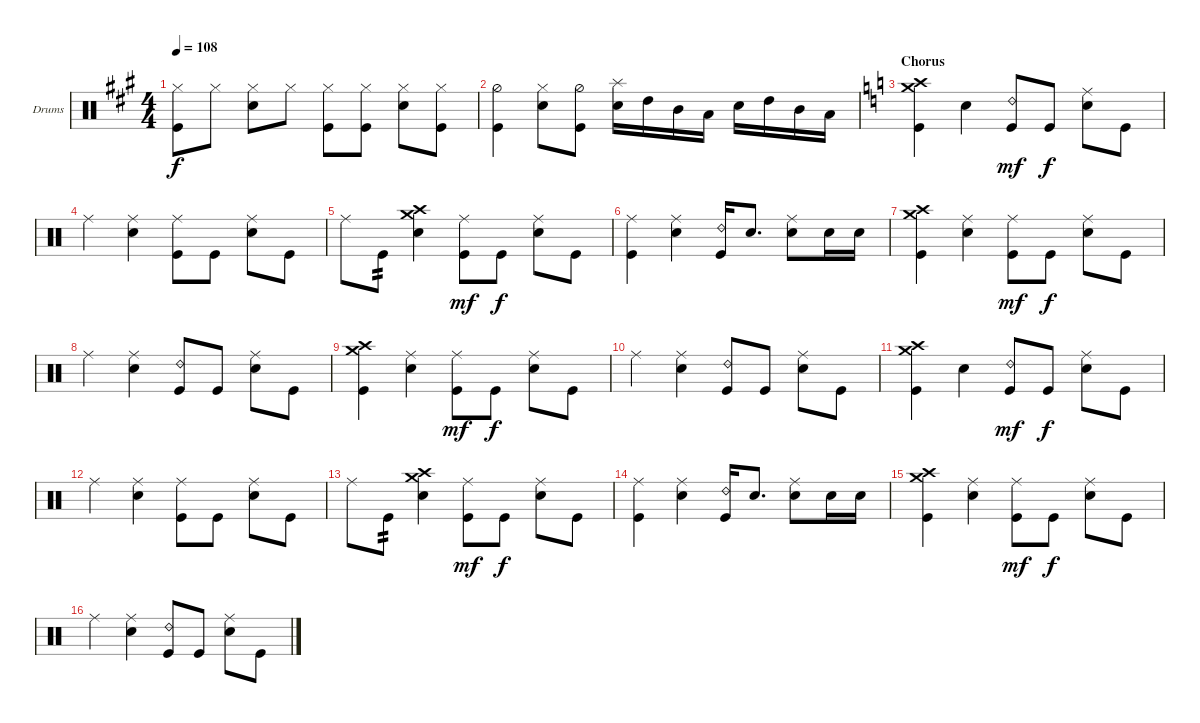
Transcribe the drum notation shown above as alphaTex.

\defaultSystemsLayout 4
\bracketExtendMode groupsimilarinstruments
\firstSystemTrackNameOrientation horizontal
\otherSystemsTrackNameOrientation horizontal
\track ("Drums" "Drums") {instrument percussion}
\staff {score}
\articulation defaults
\ts (4 4)
\tempo 108
\clef neutral
\ks a
("Kick (hit)" "Hi-Hat (closed)").8{dy f} "Hi-Hat (closed)".8 ("Snare (hit) 2" "Hi-Hat (closed)").8 "Hi-Hat (closed)".8 ("Kick (hit)" "Hi-Hat (closed)").8 ("Hi-Hat (closed)" "Kick (hit)").8 ("Hi-Hat (closed)" "Snare (hit) 2").8 ("Kick (hit)" "Hi-Hat (closed)").8 |
("Kick (hit)" "Hi-Hat (half)").4 ("Snare (hit) 2" "Hi-Hat (closed)").8 ("Kick (hit)" "Hi-Hat (half)").8 ("Snare (hit) 2" "Splash (hit)").16 "High Tom (hit)".16 "Mid Tom (hit)".16 "Low Tom (hit)".16 "Snare (hit) 2".16 "High Tom (hit)".16 "Mid Tom (hit)".16 "Low Tom (hit)".16 |
\section ("" "Chorus")
\ks c
("Kick (hit)" "Crash high (hit)" "Crash medium (hit)").4 "Snare (hit) 2".4 ("Kick (hit)" "Ride (bell) 2").8{dy mf} "Kick (hit)".8{dy f} ("Snare (hit) 2" "Ride (middle)").8 "Kick (hit)".8 |
"Ride (middle)".4 ("Snare (hit) 2" "Ride (middle)").4 ("Kick (hit)" "Ride (middle)").8 "Kick (hit)".8 ("Snare (hit) 2" "Ride (middle)").8 "Kick (hit)".8 |
"Ride (middle)".8 "Kick (hit)".8{tp 2} ("Snare (hit) 2" "Crash medium (hit)" "Crash high (hit)").4 ("Kick (hit)" "Ride (middle)").8{dy mf} "Kick (hit)".8{dy f} ("Snare (hit) 2" "Ride (middle)").8 "Kick (hit)".8 |
("Kick (hit)" "Ride (middle)").4 ("Snare (hit) 2" "Ride (middle)").4 ("Kick (hit)" "Ride (bell) 2").16 "Snare (hit) 2".8{d} ("Snare (hit) 2" "Ride (middle)").8 "Snare (hit) 2".16 "Snare (hit) 2".16 |
("Kick (hit)" "Crash high (hit)" "Crash medium (hit)").4 ("Snare (hit) 2" "Ride (middle)").4 ("Kick (hit)" "Ride (middle)").8{dy mf} "Kick (hit)".8{dy f} ("Snare (hit) 2" "Ride (middle)").8 "Kick (hit)".8 |
"Ride (middle)".4 ("Snare (hit) 2" "Ride (middle)").4 ("Kick (hit)" "Ride (bell) 2").8 "Kick (hit)".8 ("Snare (hit) 2" "Ride (middle)").8 "Kick (hit)".8 |
("Kick (hit)" "Crash high (hit)" "Crash medium (hit)").4 ("Snare (hit) 2" "Ride (middle)").4 ("Kick (hit)" "Ride (middle)").8{dy mf} "Kick (hit)".8{dy f} ("Snare (hit) 2" "Ride (middle)").8 "Kick (hit)".8 |
"Ride (middle)".4 ("Snare (hit) 2" "Ride (middle)").4 ("Kick (hit)" "Ride (bell) 2").8 "Kick (hit)".8 ("Snare (hit) 2" "Ride (middle)").8 "Kick (hit)".8 |
("Kick (hit)" "Crash high (hit)" "Crash medium (hit)").4 "Snare (hit) 2".4 ("Kick (hit)" "Ride (bell) 2").8{dy mf} "Kick (hit)".8{dy f} ("Snare (hit) 2" "Ride (middle)").8 "Kick (hit)".8 |
"Ride (middle)".4 ("Snare (hit) 2" "Ride (middle)").4 ("Kick (hit)" "Ride (middle)").8 "Kick (hit)".8 ("Snare (hit) 2" "Ride (middle)").8 "Kick (hit)".8 |
"Ride (middle)".8 "Kick (hit)".8{tp 2} ("Snare (hit) 2" "Crash medium (hit)" "Crash high (hit)").4 ("Kick (hit)" "Ride (middle)").8{dy mf} "Kick (hit)".8{dy f} ("Snare (hit) 2" "Ride (middle)").8 "Kick (hit)".8 |
("Kick (hit)" "Ride (middle)").4 ("Snare (hit) 2" "Ride (middle)").4 ("Kick (hit)" "Ride (bell) 2").16 "Snare (hit) 2".8{d} ("Snare (hit) 2" "Ride (middle)").8 "Snare (hit) 2".16 "Snare (hit) 2".16 |
("Kick (hit)" "Crash high (hit)" "Crash medium (hit)").4 ("Snare (hit) 2" "Ride (middle)").4 ("Kick (hit)" "Ride (middle)").8{dy mf} "Kick (hit)".8{dy f} ("Snare (hit) 2" "Ride (middle)").8 "Kick (hit)".8 |
"Ride (middle)".4 ("Snare (hit) 2" "Ride (middle)").4 ("Kick (hit)" "Ride (bell) 2").8 "Kick (hit)".8 ("Snare (hit) 2" "Ride (middle)").8 "Kick (hit)".8
